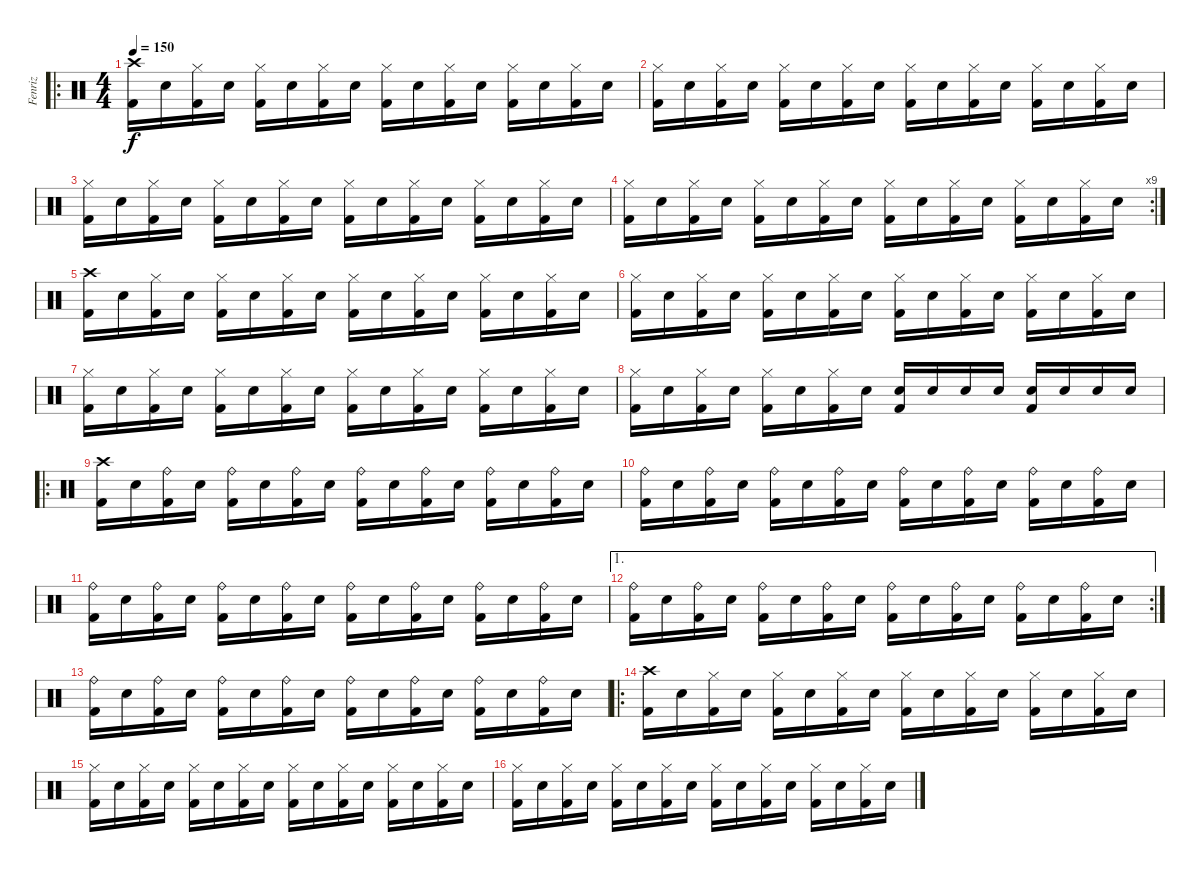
\track ("Fenriz" "Fenriz") {instrument percussion}
\staff {score}
\articulation defaults
\ro
\ts (4 4)
\tempo 150
\clef neutral
\ks c
("Crash high (hit)" "Kick (hit) 2").16{dy f} "Snare (hit) 2".16 ("Hi-Hat (closed)" "Kick (hit) 2").16 "Snare (hit) 2".16 ("Hi-Hat (closed)" "Kick (hit) 2").16 "Snare (hit) 2".16 ("Hi-Hat (closed)" "Kick (hit) 2").16 "Snare (hit) 2".16 ("Hi-Hat (closed)" "Kick (hit) 2").16 "Snare (hit) 2".16 ("Hi-Hat (closed)" "Kick (hit) 2").16 "Snare (hit) 2".16 ("Hi-Hat (closed)" "Kick (hit) 2").16 "Snare (hit) 2".16 ("Hi-Hat (closed)" "Kick (hit) 2").16 "Snare (hit) 2".16 |
("Hi-Hat (closed)" "Kick (hit) 2").16 "Snare (hit) 2".16 ("Hi-Hat (closed)" "Kick (hit) 2").16 "Snare (hit) 2".16 ("Hi-Hat (closed)" "Kick (hit) 2").16 "Snare (hit) 2".16 ("Hi-Hat (closed)" "Kick (hit) 2").16 "Snare (hit) 2".16 ("Hi-Hat (closed)" "Kick (hit) 2").16 "Snare (hit) 2".16 ("Hi-Hat (closed)" "Kick (hit) 2").16 "Snare (hit) 2".16 ("Hi-Hat (closed)" "Kick (hit) 2").16 "Snare (hit) 2".16 ("Hi-Hat (closed)" "Kick (hit) 2").16 "Snare (hit) 2".16 |
("Hi-Hat (closed)" "Kick (hit) 2").16 "Snare (hit) 2".16 ("Hi-Hat (closed)" "Kick (hit) 2").16 "Snare (hit) 2".16 ("Hi-Hat (closed)" "Kick (hit) 2").16 "Snare (hit) 2".16 ("Hi-Hat (closed)" "Kick (hit) 2").16 "Snare (hit) 2".16 ("Hi-Hat (closed)" "Kick (hit) 2").16 "Snare (hit) 2".16 ("Hi-Hat (closed)" "Kick (hit) 2").16 "Snare (hit) 2".16 ("Hi-Hat (closed)" "Kick (hit) 2").16 "Snare (hit) 2".16 ("Hi-Hat (closed)" "Kick (hit) 2").16 "Snare (hit) 2".16 |
\rc 9
("Hi-Hat (closed)" "Kick (hit) 2").16 "Snare (hit) 2".16 ("Hi-Hat (closed)" "Kick (hit) 2").16 "Snare (hit) 2".16 ("Hi-Hat (closed)" "Kick (hit) 2").16 "Snare (hit) 2".16 ("Hi-Hat (closed)" "Kick (hit) 2").16 "Snare (hit) 2".16 ("Hi-Hat (closed)" "Kick (hit) 2").16 "Snare (hit) 2".16 ("Hi-Hat (closed)" "Kick (hit) 2").16 "Snare (hit) 2".16 ("Hi-Hat (closed)" "Kick (hit) 2").16 "Snare (hit) 2".16 ("Hi-Hat (closed)" "Kick (hit) 2").16 "Snare (hit) 2".16 |
("Crash high (hit)" "Kick (hit) 2").16 "Snare (hit) 2".16 ("Hi-Hat (closed)" "Kick (hit) 2").16 "Snare (hit) 2".16 ("Hi-Hat (closed)" "Kick (hit) 2").16 "Snare (hit) 2".16 ("Hi-Hat (closed)" "Kick (hit) 2").16 "Snare (hit) 2".16 ("Hi-Hat (closed)" "Kick (hit) 2").16 "Snare (hit) 2".16 ("Hi-Hat (closed)" "Kick (hit) 2").16 "Snare (hit) 2".16 ("Hi-Hat (closed)" "Kick (hit) 2").16 "Snare (hit) 2".16 ("Hi-Hat (closed)" "Kick (hit) 2").16 "Snare (hit) 2".16 |
("Hi-Hat (closed)" "Kick (hit) 2").16 "Snare (hit) 2".16 ("Hi-Hat (closed)" "Kick (hit) 2").16 "Snare (hit) 2".16 ("Hi-Hat (closed)" "Kick (hit) 2").16 "Snare (hit) 2".16 ("Hi-Hat (closed)" "Kick (hit) 2").16 "Snare (hit) 2".16 ("Hi-Hat (closed)" "Kick (hit) 2").16 "Snare (hit) 2".16 ("Hi-Hat (closed)" "Kick (hit) 2").16 "Snare (hit) 2".16 ("Hi-Hat (closed)" "Kick (hit) 2").16 "Snare (hit) 2".16 ("Hi-Hat (closed)" "Kick (hit) 2").16 "Snare (hit) 2".16 |
("Hi-Hat (closed)" "Kick (hit) 2").16 "Snare (hit) 2".16 ("Hi-Hat (closed)" "Kick (hit) 2").16 "Snare (hit) 2".16 ("Hi-Hat (closed)" "Kick (hit) 2").16 "Snare (hit) 2".16 ("Hi-Hat (closed)" "Kick (hit) 2").16 "Snare (hit) 2".16 ("Hi-Hat (closed)" "Kick (hit) 2").16 "Snare (hit) 2".16 ("Hi-Hat (closed)" "Kick (hit) 2").16 "Snare (hit) 2".16 ("Hi-Hat (closed)" "Kick (hit) 2").16 "Snare (hit) 2".16 ("Hi-Hat (closed)" "Kick (hit) 2").16 "Snare (hit) 2".16 |
("Hi-Hat (closed)" "Kick (hit) 2").16 "Snare (hit) 2".16 ("Hi-Hat (closed)" "Kick (hit) 2").16 "Snare (hit) 2".16 ("Hi-Hat (closed)" "Kick (hit) 2").16 "Snare (hit) 2".16 ("Hi-Hat (closed)" "Kick (hit) 2").16 "Snare (hit) 2".16 ("Snare (hit) 2" "Kick (hit) 2").16 "Snare (hit) 2".16 "Snare (hit) 2".16 "Snare (hit) 2".16 ("Snare (hit) 2" "Kick (hit) 2").16 "Snare (hit) 2".16 "Snare (hit) 2".16 "Snare (hit) 2".16 |
\ro
("Crash high (hit)" "Kick (hit) 2").16 "Snare (hit) 2".16 ("Ride (bell)" "Kick (hit) 2").16 "Snare (hit) 2".16 ("Ride (bell)" "Kick (hit) 2").16 "Snare (hit) 2".16 ("Ride (bell)" "Kick (hit) 2").16 "Snare (hit) 2".16 ("Ride (bell)" "Kick (hit) 2").16 "Snare (hit) 2".16 ("Ride (bell)" "Kick (hit) 2").16 "Snare (hit) 2".16 ("Ride (bell)" "Kick (hit) 2").16 "Snare (hit) 2".16 ("Ride (bell)" "Kick (hit) 2").16 "Snare (hit) 2".16 |
("Ride (bell)" "Kick (hit) 2").16 "Snare (hit) 2".16 ("Ride (bell)" "Kick (hit) 2").16 "Snare (hit) 2".16 ("Ride (bell)" "Kick (hit) 2").16 "Snare (hit) 2".16 ("Ride (bell)" "Kick (hit) 2").16 "Snare (hit) 2".16 ("Ride (bell)" "Kick (hit) 2").16 "Snare (hit) 2".16 ("Ride (bell)" "Kick (hit) 2").16 "Snare (hit) 2".16 ("Ride (bell)" "Kick (hit) 2").16 "Snare (hit) 2".16 ("Ride (bell)" "Kick (hit) 2").16 "Snare (hit) 2".16 |
("Ride (bell)" "Kick (hit) 2").16 "Snare (hit) 2".16 ("Ride (bell)" "Kick (hit) 2").16 "Snare (hit) 2".16 ("Ride (bell)" "Kick (hit) 2").16 "Snare (hit) 2".16 ("Ride (bell)" "Kick (hit) 2").16 "Snare (hit) 2".16 ("Ride (bell)" "Kick (hit) 2").16 "Snare (hit) 2".16 ("Ride (bell)" "Kick (hit) 2").16 "Snare (hit) 2".16 ("Ride (bell)" "Kick (hit) 2").16 "Snare (hit) 2".16 ("Ride (bell)" "Kick (hit) 2").16 "Snare (hit) 2".16 |
\ae 1
\rc 2
("Ride (bell)" "Kick (hit) 2").16 "Snare (hit) 2".16 ("Ride (bell)" "Kick (hit) 2").16 "Snare (hit) 2".16 ("Ride (bell)" "Kick (hit) 2").16 "Snare (hit) 2".16 ("Ride (bell)" "Kick (hit) 2").16 "Snare (hit) 2".16 ("Ride (bell)" "Kick (hit) 2").16 "Snare (hit) 2".16 ("Ride (bell)" "Kick (hit) 2").16 "Snare (hit) 2".16 ("Ride (bell)" "Kick (hit) 2").16 "Snare (hit) 2".16 ("Ride (bell)" "Kick (hit) 2").16 "Snare (hit) 2".16 |
("Ride (bell)" "Kick (hit) 2").16 "Snare (hit) 2".16 ("Ride (bell)" "Kick (hit) 2").16 "Snare (hit) 2".16 ("Ride (bell)" "Kick (hit) 2").16 "Snare (hit) 2".16 ("Ride (bell)" "Kick (hit) 2").16 "Snare (hit) 2".16 ("Ride (bell)" "Kick (hit) 2").16 "Snare (hit) 2".16 ("Ride (bell)" "Kick (hit) 2").16 "Snare (hit) 2".16 ("Ride (bell)" "Kick (hit) 2").16 "Snare (hit) 2".16 ("Ride (bell)" "Kick (hit) 2").16 "Snare (hit) 2".16 |
\ro
("Crash high (hit)" "Kick (hit) 2").16 "Snare (hit) 2".16 ("Hi-Hat (closed)" "Kick (hit) 2").16 "Snare (hit) 2".16 ("Hi-Hat (closed)" "Kick (hit) 2").16 "Snare (hit) 2".16 ("Hi-Hat (closed)" "Kick (hit) 2").16 "Snare (hit) 2".16 ("Hi-Hat (closed)" "Kick (hit) 2").16 "Snare (hit) 2".16 ("Hi-Hat (closed)" "Kick (hit) 2").16 "Snare (hit) 2".16 ("Hi-Hat (closed)" "Kick (hit) 2").16 "Snare (hit) 2".16 ("Hi-Hat (closed)" "Kick (hit) 2").16 "Snare (hit) 2".16 |
("Hi-Hat (closed)" "Kick (hit) 2").16 "Snare (hit) 2".16 ("Hi-Hat (closed)" "Kick (hit) 2").16 "Snare (hit) 2".16 ("Hi-Hat (closed)" "Kick (hit) 2").16 "Snare (hit) 2".16 ("Hi-Hat (closed)" "Kick (hit) 2").16 "Snare (hit) 2".16 ("Hi-Hat (closed)" "Kick (hit) 2").16 "Snare (hit) 2".16 ("Hi-Hat (closed)" "Kick (hit) 2").16 "Snare (hit) 2".16 ("Hi-Hat (closed)" "Kick (hit) 2").16 "Snare (hit) 2".16 ("Hi-Hat (closed)" "Kick (hit) 2").16 "Snare (hit) 2".16 |
("Hi-Hat (closed)" "Kick (hit) 2").16 "Snare (hit) 2".16 ("Hi-Hat (closed)" "Kick (hit) 2").16 "Snare (hit) 2".16 ("Hi-Hat (closed)" "Kick (hit) 2").16 "Snare (hit) 2".16 ("Hi-Hat (closed)" "Kick (hit) 2").16 "Snare (hit) 2".16 ("Hi-Hat (closed)" "Kick (hit) 2").16 "Snare (hit) 2".16 ("Hi-Hat (closed)" "Kick (hit) 2").16 "Snare (hit) 2".16 ("Hi-Hat (closed)" "Kick (hit) 2").16 "Snare (hit) 2".16 ("Hi-Hat (closed)" "Kick (hit) 2").16 "Snare (hit) 2".16
